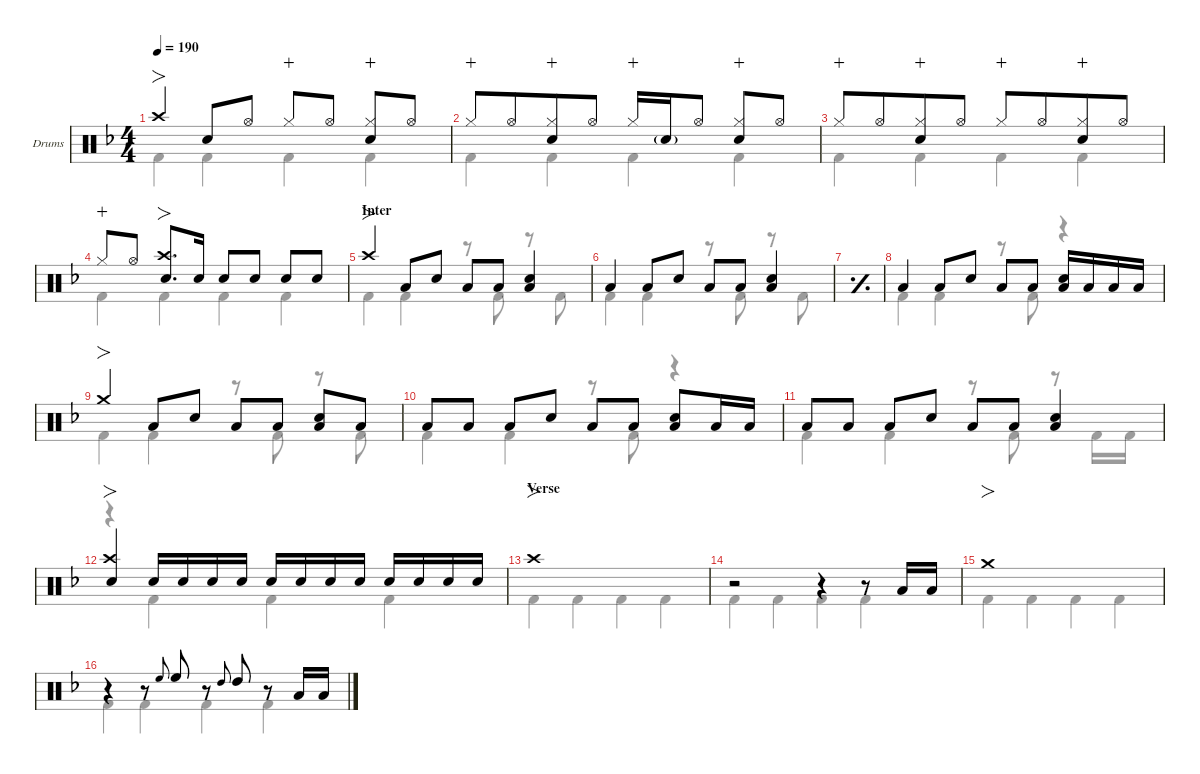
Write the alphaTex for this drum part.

\defaultSystemsLayout 4
\hideDynamics
\bracketExtendMode nobrackets
\firstSystemTrackNameOrientation horizontal
\track ("Drums" "Drums") {defaultSystemsLayout 4 instrument percussion}
\staff {score}
\articulation defaults
\voice
\ts (4 4)
\tempo 190
\clef neutral
\scale
0.266618
\ks dminor "Crash high (hit)"{acc forcenatural}.4{fo dy f beam Up} "Snare (hit) 2"{acc forcenatural}.8{beam Up} "Hi-Hat (open)"{acc forcenatural}.8{beam Up} "Hi-Hat (closed)"{acc forcenatural}.8{dy mp wahc beam Up} "Hi-Hat (open)"{acc forcenatural}.8{dy f beam Up}
("Hi-Hat (closed)"{acc forcenatural} "Snare (hit) 2"{acc forcenatural}).8{wahc beam Up} "Hi-Hat (open)"{acc forcenatural}.8{beam Up} |
\scale
0.244461 "Hi-Hat (closed)"{acc forcenatural}.8{dy mp wahc beam Up beam merge} "Hi-Hat (open)"{acc forcenatural}.8{dy f beam Up beam merge} ("Hi-Hat (closed)"{acc forcenatural} "Snare (hit) 2"{acc forcenatural}).8{wahc beam Up beam merge} "Hi-Hat (open)"{acc forcenatural}.8{beam Up} "Hi-Hat (closed)"{acc forcenatural}.16{dy mp wahc beam Up} "Snare (hit) 2"{g acc forcenatural}.16{dy mf beam Up} "Hi-Hat (open)"{acc forcenatural}.8{dy f beam Up beam split} ("Hi-Hat (closed)"{acc forcenatural} "Snare (hit) 2"{acc forcenatural}).8{wahc beam Up} "Hi-Hat (open)"{acc forcenatural}.8{beam Up} |
\scale
0.24446 "Hi-Hat (closed)"{acc forcenatural}.8{dy mp wahc beam Up beam merge} "Hi-Hat (open)"{acc forcenatural}.8{dy f beam Up beam merge} ("Hi-Hat (closed)"{acc forcenatural} "Snare (hit) 2"{acc forcenatural}).8{wahc beam Up beam merge} "Hi-Hat (open)"{acc forcenatural}.8{beam Up} "Hi-Hat (closed)"{acc forcenatural}.8{dy mp wahc beam Up beam merge} "Hi-Hat (open)"{acc forcenatural}.8{dy f beam Up beam merge} ("Hi-Hat (closed)"{acc forcenatural} "Snare (hit) 2"{acc forcenatural}).8{wahc beam Up beam merge} "Hi-Hat (open)"{acc forcenatural}.8{beam Up} |
\scale
0.244461 "Hi-Hat (closed)"{acc forcenatural}.8{dy mp wahc beam Up beam merge} "Hi-Hat (open)"{acc forcenatural}.8{dy f beam Up beam split} ("Crash high (hit)"{acc forcenatural} "Snare (hit) 2"{acc forcenatural}).8{fo d beam Up beam merge} "Snare (hit) 2"{acc forcenatural}.16{beam Up} "Snare (hit) 2"{acc forcenatural}.8{beam Up} "Snare (hit) 2"{acc forcenatural}.8{beam Up} "Snare (hit) 2"{acc forcenatural}.8{beam Up} "Snare (hit) 2"{acc forcenatural}.8{beam Up} |
\section ("" "Inter")
\scale
0.266618 "Crash high (hit)"{acc forcenatural}.4{fo beam Up} "Low Tom (hit)"{acc forcenatural}.8{beam Up} "Snare (hit) 2"{acc forcenatural}.8{beam Up} "Low Tom (hit)"{acc forcenatural}.8{beam Up} "Low Tom (hit)"{acc forcenatural}.8{beam Up} ("Low Tom (hit)"{acc forcenatural} "Snare (hit) 2"{acc forcenatural}).4{beam Up} |
\scale
0.244461 "Low Tom (hit)"{acc forcenatural}.4{beam Up} "Low Tom (hit)"{acc forcenatural}.8{beam Up} "Snare (hit) 2"{acc forcenatural}.8{beam Up} "Low Tom (hit)"{acc forcenatural}.8{beam Up} "Low Tom (hit)"{acc forcenatural}.8{beam Up} ("Low Tom (hit)"{acc forcenatural} "Snare (hit) 2"{acc forcenatural}).4{beam Up} |
\simile simple
\scale
0.24446 |
\simile none
\scale
0.244461 "Low Tom (hit)"{acc forcenatural}.4{beam Up} "Low Tom (hit)"{acc forcenatural}.8{beam Up} "Snare (hit) 2"{acc forcenatural}.8{beam Up} "Low Tom (hit)"{acc forcenatural}.8{beam Up} "Low Tom (hit)"{acc forcenatural}.8{beam Up beam split} ("Snare (hit) 2"{acc forcenatural} "Low Tom (hit)"{acc forcenatural}).16{beam Up} "Low Tom (hit)"{acc forcenatural}.16{beam Up} "Low Tom (hit)"{acc forcenatural}.16{beam Up} "Low Tom (hit)"{acc forcenatural}.16{beam Up} |
\scale
0.266618 "Crash medium (hit)"{acc forcenatural}.4{fo beam Up} "Low Tom (hit)"{acc forcenatural}.8{beam Up} "Snare (hit) 2"{acc forcenatural}.8{beam Up} "Low Tom (hit)"{acc forcenatural}.8{beam Up} "Low Tom (hit)"{acc forcenatural}.8{beam Up} ("Low Tom (hit)"{acc forcenatural} "Snare (hit) 2"{acc forcenatural}).8{beam Up} "Low Tom (hit)"{acc forcenatural}.8{beam Up} |
\scale
0.244461 "Low Tom (hit)"{acc forcenatural}.8{beam Up} "Low Tom (hit)"{acc forcenatural}.8{beam Up} "Low Tom (hit)"{acc forcenatural}.8{beam Up} "Snare (hit) 2"{acc forcenatural}.8{beam Up} "Low Tom (hit)"{acc forcenatural}.8{beam Up} "Low Tom (hit)"{acc forcenatural}.8{beam Up beam split} ("Low Tom (hit)"{acc forcenatural} "Snare (hit) 2"{acc forcenatural}).8{beam Up} "Low Tom (hit)"{acc forcenatural}.16{beam Up} "Low Tom (hit)"{acc forcenatural}.16{beam Up} |
\scale
0.24446 "Low Tom (hit)"{acc forcenatural}.8{beam Up} "Low Tom (hit)"{acc forcenatural}.8{beam Up} "Low Tom (hit)"{acc forcenatural}.8{beam Up} "Snare (hit) 2"{acc forcenatural}.8{beam Up} "Low Tom (hit)"{acc forcenatural}.8{beam Up} "Low Tom (hit)"{acc forcenatural}.8{beam Up} ("Snare (hit) 2"{acc forcenatural} "Low Tom (hit)"{acc forcenatural}).4{beam Up} |
\scale
0.244461 ("Snare (hit) 2"{acc forcenatural} "Crash high (hit)"{acc forcenatural}).4{fo beam Up} "Snare (hit) 2"{acc forcenatural}.16{beam Up} "Snare (hit) 2"{acc forcenatural}.16{dy mp beam Up} "Snare (hit) 2"{acc forcenatural}.16{dy mf beam Up} "Snare (hit) 2"{acc forcenatural}.16{dy mp beam Up} "Snare (hit) 2"{acc forcenatural}.16{dy f beam Up} "Snare (hit) 2"{acc forcenatural}.16{dy mp beam Up} "Snare (hit) 2"{acc forcenatural}.16{dy mf beam Up} "Snare (hit) 2"{acc forcenatural}.16{dy mp beam Up beam split} "Snare (hit) 2"{acc forcenatural}.16{dy f beam Up} "Snare (hit) 2"{acc forcenatural}.16{dy mp beam Up} "Snare (hit) 2"{acc forcenatural}.16{dy mf beam Up} "Snare (hit) 2"{acc forcenatural}.16{dy mp beam Up} |
\section ("" "Verse")
\scale
0.266618 "Crash high (hit)"{acc forcenatural}.1{fo dy f beam Up} |
\scale
0.244461 r.2{beam Up} r.4{beam Up} r.8{beam Up} "Low Tom (hit)"{acc forcenatural}.16{beam Up} "Low Tom (hit)"{acc forcenatural}.16{beam Up} |
\scale
0.244461 "Crash medium (hit)"{acc forcenatural}.1{fo beam Up} |
\scale
0.244461 r.4{beam Up} r.8{beam Up} "High Floor Tom (hit)"{acc forcenatural}.8{gr onbeat beam Up} "High Floor Tom (hit)"{acc forcenatural}.8{beam Up} r.8{beam Up} "High Tom (hit)"{acc forcenatural}.8{gr onbeat beam Up} "High Tom (hit)"{acc forcenatural}.8{beam Up beam split} r.8{beam Up beam split} "Low Tom (hit)"{acc forcenatural}.16{beam Up} "Low Tom (hit)"{acc forcenatural}.16{beam Up}
\voice
\clef neutral
\ottava regular
\simile none
\scale
0.266618
\ks dminor "Kick (hit) 2"{acc forcenatural}.4{dy f beam Down} "Kick (hit) 2"{acc forcenatural}.4{beam Down} "Kick (hit) 2"{acc forcenatural}.4{beam Down} "Kick (hit) 2"{acc forcenatural}.4{beam Down}
|
\scale
0.244461 "Kick (hit) 2"{acc forcenatural}.4{beam Down} "Kick (hit) 2"{acc forcenatural}.4{beam Down} "Kick (hit) 2"{acc forcenatural}.4{beam Down} "Kick (hit) 2"{acc forcenatural}.4{beam Down} |
\scale
0.24446 "Kick (hit) 2"{acc forcenatural}.4{beam Down} "Kick (hit) 2"{acc forcenatural}.4{beam Down} "Kick (hit) 2"{acc forcenatural}.4{beam Down} "Kick (hit) 2"{acc forcenatural}.4{beam Down} |
\scale
0.244461 "Kick (hit) 2"{acc forcenatural}.4{beam Down} "Kick (hit) 2"{acc forcenatural}.4{beam Down} "Kick (hit) 2"{acc forcenatural}.4{beam Down} "Kick (hit) 2"{acc forcenatural}.4{beam Down} |
\scale
0.266618 "Kick (hit) 2"{acc forcenatural}.4{beam Down} "Kick (hit) 2"{acc forcenatural}.4{beam Down} r.8{beam Down} "Kick (hit) 2"{acc forcenatural}.8{beam Down} r.8{beam Down} "Kick (hit) 2"{acc forcenatural}.8{beam Down} |
\scale
0.244461 "Kick (hit) 2"{acc forcenatural}.4{beam Down} "Kick (hit) 2"{acc forcenatural}.4{beam Down} r.8{beam Down} "Kick (hit) 2"{acc forcenatural}.8{beam Down} r.8{beam Down} "Kick (hit) 2"{acc forcenatural}.8{beam Down} |
\simile simple
\scale
0.24446 |
\simile none
\scale
0.244461 "Kick (hit) 2"{acc forcenatural}.4{beam Down} "Kick (hit) 2"{acc forcenatural}.4{beam Down} r.8{beam Down} "Kick (hit) 2"{acc forcenatural}.8{beam Down} r.4{beam Down} |
\scale
0.266618 "Kick (hit) 2"{acc forcenatural}.4{beam Down} "Kick (hit) 2"{acc forcenatural}.4{beam Down} r.8{beam Down} "Kick (hit) 2"{acc forcenatural}.8{beam Down} r.8{beam Down} "Kick (hit) 2"{acc forcenatural}.8{beam Down} |
\scale
0.244461 "Kick (hit) 2"{acc forcenatural}.4{beam Down} "Kick (hit) 2"{acc forcenatural}.4{beam Down} r.8{beam Down} "Kick (hit) 2"{acc forcenatural}.8{beam Down} r.4{beam Down} |
\scale
0.24446 "Kick (hit) 2"{acc forcenatural}.4{beam Down} "Kick (hit) 2"{acc forcenatural}.4{beam Down} r.8{beam Down} "Kick (hit) 2"{acc forcenatural}.8{beam Down beam split} r.8{beam Down beam split} "Kick (hit) 2"{acc forcenatural}.16{beam Down} "Kick (hit) 2"{acc forcenatural}.16{beam Down} |
\scale
0.244461 r.4{beam Down} "Kick (hit) 2"{acc forcenatural}.4{beam Down} "Kick (hit) 2"{acc forcenatural}.4{beam Down} "Kick (hit) 2"{acc forcenatural}.4{beam Down} |
\scale
0.266618 "Kick (hit) 2"{acc forcenatural}.4{beam Down} "Kick (hit) 2"{acc forcenatural}.4{beam Down} "Kick (hit) 2"{acc forcenatural}.4{beam Down} "Kick (hit) 2"{acc forcenatural}.4{beam Down} |
\scale
0.244461 "Kick (hit) 2"{acc forcenatural}.4{beam Down} "Kick (hit) 2"{acc forcenatural}.4{beam Down} "Kick (hit) 2"{acc forcenatural}.4{beam Down} "Kick (hit) 2"{acc forcenatural}.4{beam Down} |
\scale
0.244461 "Kick (hit) 2"{acc forcenatural}.4{beam Down} "Kick (hit) 2"{acc forcenatural}.4{beam Down} "Kick (hit) 2"{acc forcenatural}.4{beam Down} "Kick (hit) 2"{acc forcenatural}.4{beam Down} |
\scale
0.244461 "Kick (hit) 2"{acc forcenatural}.4{beam Down} "Kick (hit) 2"{acc forcenatural}.4{beam Down} "Kick (hit) 2"{acc forcenatural}.4{beam Down} "Kick (hit) 2"{acc forcenatural}.4{beam Down}
